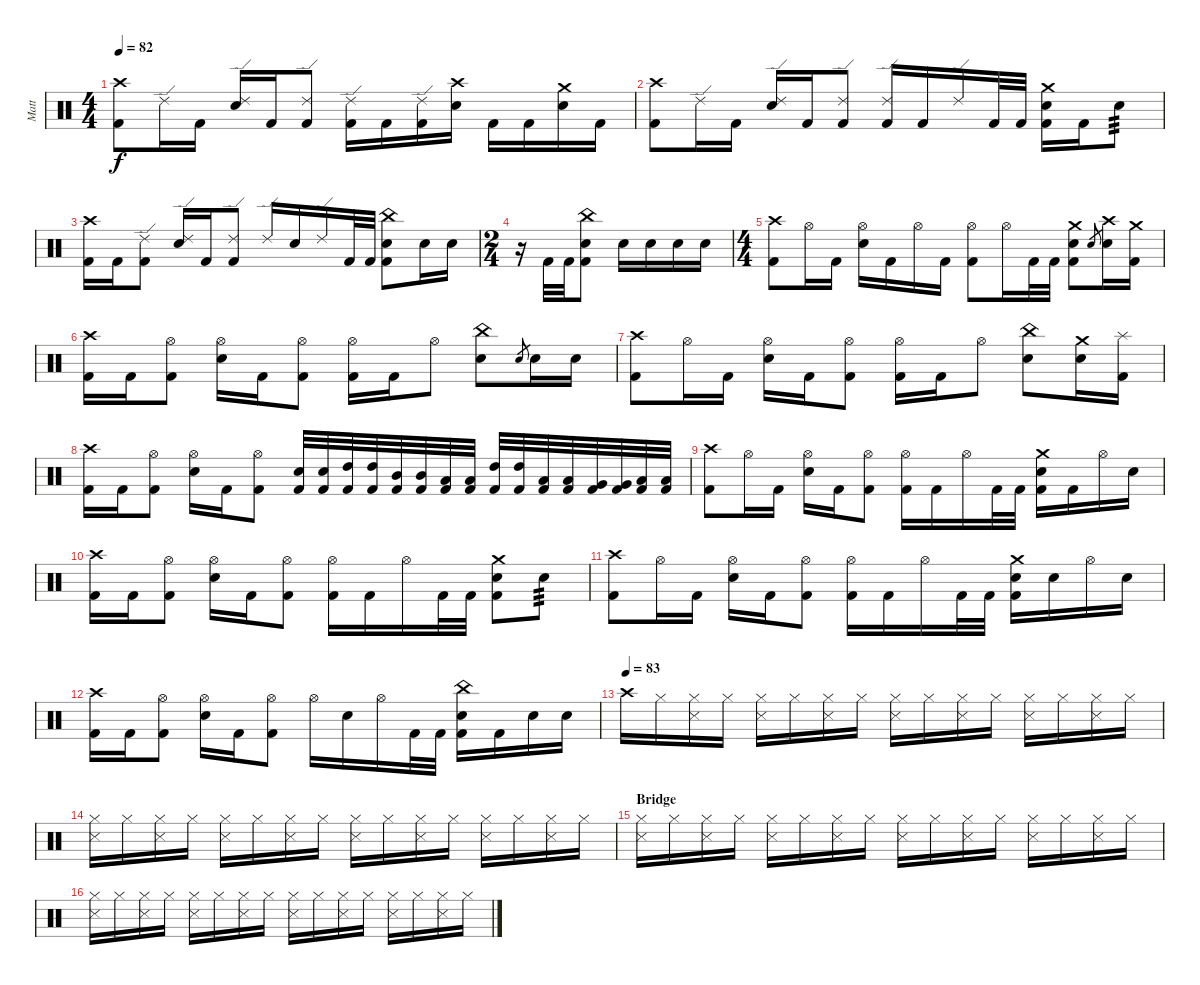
\track ("Matt" "Matt") {instrument percussion}
\staff {score}
\articulation defaults
\ts (4 4)
\tempo 82
\clef neutral
\ks c
("Crash high (hit)" "Kick (hit) 2").8{dy f} "Ride (edge) 2".16 "Kick (hit) 2".16 ("Ride (edge) 2" "Electric Snare (hit)").16 "Kick (hit) 2".16 ("Ride (edge) 2" "Kick (hit) 2").8 ("Ride (edge) 2" "Kick (hit) 2").16 "Kick (hit) 2".16 ("Ride (edge) 2" "Kick (hit) 2").16 ("Crash high (hit)" "Electric Snare (hit)").16 "Kick (hit) 2".16 "Kick (hit) 2".16 ("Crash medium (hit)" "Electric Snare (hit)").16 "Kick (hit) 2".16 |
("Crash high (hit)" "Kick (hit) 2").8 "Ride (edge) 2".16 "Kick (hit) 2".16 ("Ride (edge) 2" "Electric Snare (hit)").16 "Kick (hit) 2".16 ("Ride (edge) 2" "Kick (hit) 2").8 ("Ride (edge) 2" "Kick (hit) 2").16 "Kick (hit) 2".16 "Ride (edge) 2".16 "Kick (hit) 2".32 "Kick (hit) 2".32 ("Crash medium (hit)" "Electric Snare (hit)" "Kick (hit) 2").16 "Kick (hit) 2".16 "Electric Snare (hit)".8{tp 3} |
("Crash high (hit)" "Kick (hit) 2").16 "Kick (hit) 2".16 ("Ride (edge) 2" "Kick (hit) 2").8 ("Ride (edge) 2" "Electric Snare (hit)").16 "Kick (hit) 2".16 ("Ride (edge) 2" "Kick (hit) 2").8 "Ride (edge) 2".16 "Electric Snare (hit)".16 "Ride (edge) 2".16 "Kick (hit) 2".32 "Kick (hit) 2".32 ("China (hit)" "Electric Snare (hit)" "Kick (hit) 2").8 "Electric Snare (hit)".16 "Electric Snare (hit)".16 |
\ts (2 4)
r.16 "Kick (hit) 2".32 "Kick (hit) 2".32 ("China (hit)" "Electric Snare (hit)" "Kick (hit) 2").8 "Electric Snare (hit)".16 "Electric Snare (hit)".16 "Electric Snare (hit)".16 "Electric Snare (hit)".16 |
\ts (4 4)
("Crash high (hit)" "Kick (hit) 2").8 "Hi-Hat (open)".16 "Kick (hit) 2".16 ("Hi-Hat (open)" "Electric Snare (hit)").16 "Kick (hit) 2".16 "Hi-Hat (open)".16 "Kick (hit) 2".16 ("Hi-Hat (open)" "Kick (hit) 2").8 "Hi-Hat (open)".16 "Kick (hit) 2".32 "Kick (hit) 2".32 ("Crash medium (hit)" "Electric Snare (hit)" "Kick (hit) 2").8 "Electric Snare (hit)".8{gr} ("Crash high (hit)" "Electric Snare (hit)").16 ("Crash medium (hit)" "Kick (hit) 2").16 |
("Crash high (hit)" "Kick (hit) 2").16 "Kick (hit) 2".16 ("Hi-Hat (open)" "Kick (hit) 2").8 ("Hi-Hat (open)" "Electric Snare (hit)").16 "Kick (hit) 2".16 ("Hi-Hat (open)" "Kick (hit) 2").8 ("Hi-Hat (open)" "Kick (hit) 2").16 "Kick (hit) 2".16 "Hi-Hat (open)".8 ("China (hit)" "Electric Snare (hit)").8 "Electric Snare (hit)".8{gr} "Electric Snare (hit)".16 "Electric Snare (hit)".16 |
("Crash high (hit)" "Kick (hit) 2").8 "Hi-Hat (open)".16 "Kick (hit) 2".16 ("Hi-Hat (open)" "Electric Snare (hit)").16 "Kick (hit) 2".16 ("Hi-Hat (open)" "Kick (hit) 2").8 ("Hi-Hat (open)" "Kick (hit) 2").16 "Kick (hit) 2".16 "Hi-Hat (open)".8 ("China (hit)" "Electric Snare (hit)").8 ("Crash medium (hit)" "Electric Snare (hit)").16 ("Splash (hit)" "Kick (hit) 2").16 |
("Crash high (hit)" "Kick (hit) 2").16 "Kick (hit) 2".16 ("Hi-Hat (open)" "Kick (hit) 2").8 ("Hi-Hat (open)" "Electric Snare (hit)").16 "Kick (hit) 2".16 ("Hi-Hat (open)" "Kick (hit) 2").8 ("Electric Snare (hit)" "Kick (hit) 2").32 ("Electric Snare (hit)" "Kick (hit) 2").32 ("High Tom (hit)" "Kick (hit) 2").32 ("High Tom (hit)" "Kick (hit) 2").32 ("Mid Tom (hit)" "Kick (hit) 2").32 ("Mid Tom (hit)" "Kick (hit) 2").32 ("Low Tom (hit)" "Kick (hit) 2").32 ("Low Tom (hit)" "Kick (hit) 2").32 ("High Tom (hit)" "Kick (hit) 2").32 ("High Tom (hit)" "Kick (hit) 2").32 ("Low Tom (hit)" "Kick (hit) 2").32 ("Low Tom (hit)" "Kick (hit) 2").32 ("Very Low Tom (hit)" "Kick (hit) 2").32 ("Very Low Tom (hit)" "Kick (hit) 2").32 ("Low Floor Tom (hit)" "Kick (hit) 2").32 ("Low Floor Tom (hit)" "Kick (hit) 2").32 |
("Crash high (hit)" "Kick (hit) 2").8 "Hi-Hat (open)".16 "Kick (hit) 2".16 ("Hi-Hat (open)" "Electric Snare (hit)").16 "Kick (hit) 2".16 ("Hi-Hat (open)" "Kick (hit) 2").8 ("Hi-Hat (open)" "Kick (hit) 2").16 "Kick (hit) 2".16 "Hi-Hat (open)".16 "Kick (hit) 2".32 "Kick (hit) 2".32 ("Crash medium (hit)" "Electric Snare (hit)" "Kick (hit) 2").16 "Kick (hit) 2".16 "Hi-Hat (open)".16 "Electric Snare (hit)".16 |
("Crash high (hit)" "Kick (hit) 2").16 "Kick (hit) 2".16 ("Hi-Hat (open)" "Kick (hit) 2").8 ("Hi-Hat (open)" "Electric Snare (hit)").16 "Kick (hit) 2".16 ("Hi-Hat (open)" "Kick (hit) 2").8 ("Hi-Hat (open)" "Kick (hit) 2").16 "Kick (hit) 2".16 "Hi-Hat (open)".16 "Kick (hit) 2".32 "Kick (hit) 2".32 ("Crash medium (hit)" "Electric Snare (hit)" "Kick (hit) 2").8 "Electric Snare (hit)".8{tp 3} |
("Crash high (hit)" "Kick (hit) 2").8 "Hi-Hat (open)".16 "Kick (hit) 2".16 ("Hi-Hat (open)" "Electric Snare (hit)").16 "Kick (hit) 2".16 ("Hi-Hat (open)" "Kick (hit) 2").8 ("Hi-Hat (open)" "Kick (hit) 2").16 "Kick (hit) 2".16 "Hi-Hat (open)".16 "Kick (hit) 2".32 "Kick (hit) 2".32 ("Crash medium (hit)" "Electric Snare (hit)" "Kick (hit) 2").16 "Electric Snare (hit)".16 "Hi-Hat (open)".16 "Electric Snare (hit)".16 |
("Crash high (hit)" "Kick (hit) 2").16 "Kick (hit) 2".16 ("Hi-Hat (open)" "Kick (hit) 2").8 ("Hi-Hat (open)" "Electric Snare (hit)").16 "Kick (hit) 2".16 ("Hi-Hat (open)" "Kick (hit) 2").8 "Hi-Hat (open)".16 "Electric Snare (hit)".16 "Hi-Hat (open)".16 "Kick (hit) 2".32 "Kick (hit) 2".32 ("China (hit)" "Electric Snare (hit)" "Kick (hit) 2").16 "Kick (hit) 2".16 "Electric Snare (hit)".16 "Electric Snare (hit)".16 |
\tempo (83)
"Crash high (hit)".16 "Hi-Hat (closed)".16 ("Hi-Hat (closed)" "Snare (side stick) 3").16 "Hi-Hat (closed)".16 ("Hi-Hat (closed)" "Snare (side stick) 3").16 "Hi-Hat (closed)".16 ("Hi-Hat (closed)" "Snare (side stick) 3").16 "Hi-Hat (closed)".16 ("Hi-Hat (closed)" "Snare (side stick) 3").16 "Hi-Hat (closed)".16 ("Hi-Hat (closed)" "Snare (side stick) 3").16 "Hi-Hat (closed)".16 ("Hi-Hat (closed)" "Snare (side stick) 3").16 "Hi-Hat (closed)".16 ("Hi-Hat (closed)" "Snare (side stick) 3").16 "Hi-Hat (closed)".16 |
("Hi-Hat (closed)" "Snare (side stick) 3").16 "Hi-Hat (closed)".16 ("Hi-Hat (closed)" "Snare (side stick) 3").16 "Hi-Hat (closed)".16 ("Hi-Hat (closed)" "Snare (side stick) 3").16 "Hi-Hat (closed)".16 ("Hi-Hat (closed)" "Snare (side stick) 3").16 "Hi-Hat (closed)".16 ("Hi-Hat (closed)" "Snare (side stick) 3").16 "Hi-Hat (closed)".16 ("Hi-Hat (closed)" "Snare (side stick) 3").16 "Hi-Hat (closed)".16 ("Hi-Hat (closed)" "Snare (side stick) 3").16 "Hi-Hat (closed)".16 ("Hi-Hat (closed)" "Snare (side stick) 3").16 "Hi-Hat (closed)".16 |
\section ("" "Bridge")
("Hi-Hat (closed)" "Snare (side stick) 3").16 "Hi-Hat (closed)".16 ("Hi-Hat (closed)" "Snare (side stick) 3").16 "Hi-Hat (closed)".16 ("Hi-Hat (closed)" "Snare (side stick) 3").16 "Hi-Hat (closed)".16 ("Hi-Hat (closed)" "Snare (side stick) 3").16 "Hi-Hat (closed)".16 ("Hi-Hat (closed)" "Snare (side stick) 3").16 "Hi-Hat (closed)".16 ("Hi-Hat (closed)" "Snare (side stick) 3").16 "Hi-Hat (closed)".16 ("Hi-Hat (closed)" "Snare (side stick) 3").16 "Hi-Hat (closed)".16 ("Hi-Hat (closed)" "Snare (side stick) 3").16 "Hi-Hat (closed)".16 |
("Hi-Hat (closed)" "Snare (side stick) 3").16 "Hi-Hat (closed)".16 ("Hi-Hat (closed)" "Snare (side stick) 3").16 "Hi-Hat (closed)".16 ("Hi-Hat (closed)" "Snare (side stick) 3").16 "Hi-Hat (closed)".16 ("Hi-Hat (closed)" "Snare (side stick) 3").16 "Hi-Hat (closed)".16 ("Hi-Hat (closed)" "Snare (side stick) 3").16 "Hi-Hat (closed)".16 ("Hi-Hat (closed)" "Snare (side stick) 3").16 "Hi-Hat (closed)".16 ("Hi-Hat (closed)" "Snare (side stick) 3").16 "Hi-Hat (closed)".16 ("Hi-Hat (closed)" "Snare (side stick) 3").16 "Hi-Hat (closed)".16
